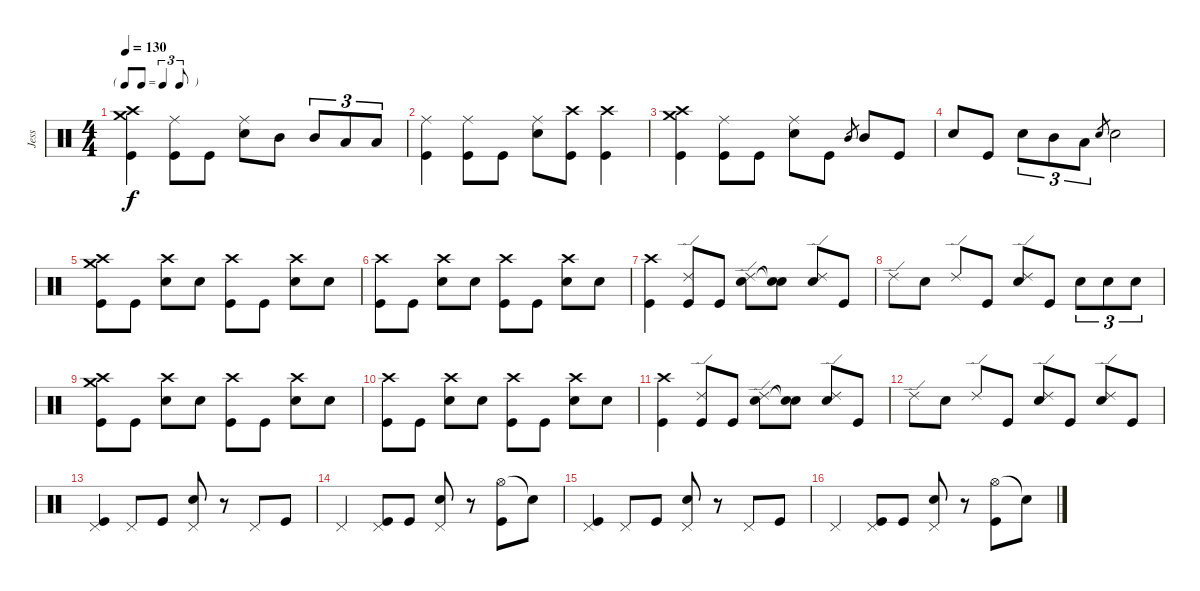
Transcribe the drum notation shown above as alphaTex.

\track ("Jess" "Jess") {instrument percussion}
\staff {score}
\articulation defaults
\ts (4 4)
\tf triplet8th
\tempo 130
\clef neutral
\ks c
("Crash high (hit)" "Crash medium (hit)" "Kick (hit)").4{dy f} ("Ride (middle)" "Kick (hit)").8 "Kick (hit)".8 ("Ride (middle)" "Snare (hit) 2").8 "Mid Tom (hit)".8 "Mid Tom (hit)".8{tu (3 2)} "Low Tom (hit)".8{tu (3 2)} "Low Tom (hit)".8{tu (3 2)} |
("Ride (middle)" "Kick (hit)").4 ("Ride (middle)" "Kick (hit)").8 "Kick (hit)".8 ("Ride (middle)" "Snare (hit) 2").8 ("Crash high (hit)" "Kick (hit)").8 ("Crash high (hit)" "Kick (hit)").4 |
("Crash high (hit)" "Crash medium (hit)" "Kick (hit)").4 ("Ride (middle)" "Kick (hit)").8 "Kick (hit)".8 ("Ride (middle)" "Snare (hit) 2").8 "Kick (hit)".8 "Mid Tom (hit)".8{gr} "Mid Tom (hit)".8 "Kick (hit)".8 |
"Snare (hit) 2".8 "Kick (hit)".8 "Snare (hit) 2".8{tu (3 2)} "Mid Tom (hit)".8{tu (3 2)} "Low Tom (hit)".8{tu (3 2)} "Snare (hit) 2".8{gr} "Snare (hit) 2".2 |
("Crash high (hit)" "Crash medium (hit)" "Kick (hit)").8 "Kick (hit)".8 ("Crash high (hit)" "Snare (hit) 2").8 "Snare (hit) 2".8 ("Crash high (hit)" "Kick (hit)").8 "Kick (hit)".8 ("Crash high (hit)" "Snare (hit) 2").8 "Snare (hit) 2".8 |
("Crash high (hit)" "Kick (hit)").8 "Kick (hit)".8 ("Crash high (hit)" "Snare (hit) 2").8 "Snare (hit) 2".8 ("Crash high (hit)" "Kick (hit)").8 "Kick (hit)".8 ("Crash high (hit)" "Snare (hit) 2").8 "Snare (hit) 2".8 |
("Crash high (hit)" "Kick (hit)").4 ("Ride (edge) 2" "Kick (hit)").8 "Kick (hit)".8 ("Ride (edge) 2" "Snare (hit) 2").8 ("Snare (hit)"{t} "Snare (hit)"{t}).8 ("Ride (edge) 2" "Snare (hit) 2").8 "Kick (hit)".8 |
"Ride (edge) 2".8 "Snare (hit) 2".8 "Ride (edge) 2".8 "Kick (hit)".8 ("Ride (edge) 2" "Snare (hit) 2").8 "Kick (hit)".8 "Snare (hit) 2".8{tu (3 2)} "Snare (hit) 2".8{tu (3 2)} "Snare (hit) 2".8{tu (3 2)} |
("Crash high (hit)" "Crash medium (hit)" "Kick (hit)").8 "Kick (hit)".8 ("Crash high (hit)" "Snare (hit) 2").8 "Snare (hit) 2".8 ("Crash high (hit)" "Kick (hit)").8 "Kick (hit)".8 ("Crash high (hit)" "Snare (hit) 2").8 "Snare (hit) 2".8 |
("Crash high (hit)" "Kick (hit)").8 "Kick (hit)".8 ("Crash high (hit)" "Snare (hit) 2").8 "Snare (hit) 2".8 ("Crash high (hit)" "Kick (hit)").8 "Kick (hit)".8 ("Crash high (hit)" "Snare (hit) 2").8 "Snare (hit) 2".8 |
("Crash high (hit)" "Kick (hit)").4 ("Ride (edge) 2" "Kick (hit)").8 "Kick (hit)".8 ("Ride (edge) 2" "Snare (hit) 2").8 ("Snare (hit)"{t} "Snare (hit)"{t}).8 ("Ride (edge) 2" "Snare (hit) 2").8 "Kick (hit)".8 |
"Ride (edge) 2".8 "Snare (hit) 2".8 "Ride (edge) 2".8 "Kick (hit)".8 ("Ride (edge) 2" "Snare (hit) 2").8 "Kick (hit)".8 ("Ride (edge) 2" "Snare (hit) 2").8 "Kick (hit)".8 |
("Pedal Hi-Hat (hit)" "Kick (hit)").4 "Pedal Hi-Hat (hit)".8 "Kick (hit)".8 ("Pedal Hi-Hat (hit)" "Snare (hit) 2").8 r.8 "Pedal Hi-Hat (hit)".8 "Kick (hit)".8 |
"Pedal Hi-Hat (hit)".4 ("Pedal Hi-Hat (hit)" "Kick (hit)").8 "Kick (hit)".8 ("Pedal Hi-Hat (hit)" "Snare (hit) 2").8 r.8 ("Hi-Hat (open)" "Kick (hit)").8 "Snare (hit)"{t}.8 |
("Pedal Hi-Hat (hit)" "Kick (hit)").4 "Pedal Hi-Hat (hit)".8 "Kick (hit)".8 ("Pedal Hi-Hat (hit)" "Snare (hit) 2").8 r.8 "Pedal Hi-Hat (hit)".8 "Kick (hit)".8 |
"Pedal Hi-Hat (hit)".4 ("Pedal Hi-Hat (hit)" "Kick (hit)").8 "Kick (hit)".8 ("Pedal Hi-Hat (hit)" "Snare (hit) 2").8 r.8 ("Hi-Hat (open)" "Kick (hit)").8 "Snare (hit)"{t}.8
